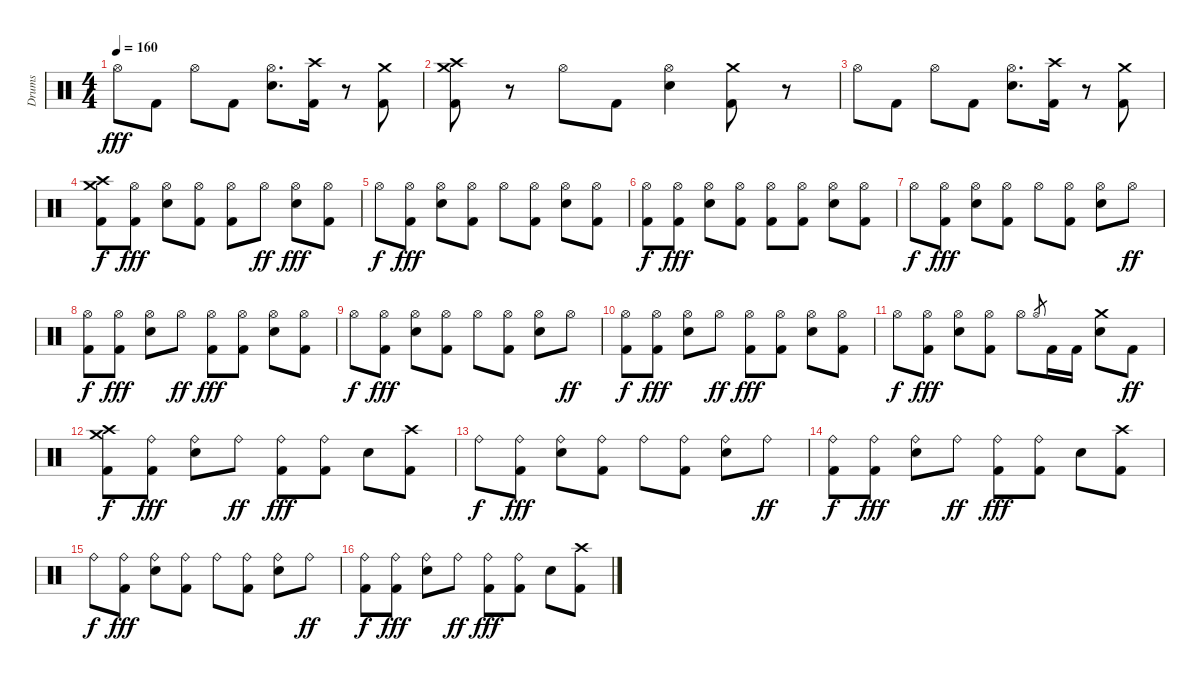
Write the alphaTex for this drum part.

\track ("Drums" "Drums") {instrument percussion}
\staff {score}
\articulation defaults
\ts (4 4)
\tempo 160
\clef neutral
\ks c "Hi-Hat (open)".8{dy fff} "Kick (hit) 2".8 "Hi-Hat (open)".8 "Kick (hit) 2".8
("Hi-Hat (open)" "Snare (hit) 2").8{d} ("Crash high (hit)" "Kick (hit) 2").16 r.8 ("Crash medium (hit)" "Kick (hit) 2").8 |
("Crash medium (hit)" "Crash high (hit)" "Kick (hit) 2").8 r.8 "Hi-Hat (open)".8 "Kick (hit) 2".8 ("Hi-Hat (open)" "Snare (hit) 2").4 ("Crash medium (hit)" "Kick (hit) 2").8 r.8 |
"Hi-Hat (open)".8 "Kick (hit) 2".8 "Hi-Hat (open)".8 "Kick (hit) 2".8 ("Hi-Hat (open)" "Snare (hit) 2").8{d} ("Crash high (hit)" "Kick (hit) 2").16 r.8 ("Crash medium (hit)" "Kick (hit) 2").8 |
("Crash medium (hit)" "Crash high (hit)" "Kick (hit) 2").8{dy f} ("Hi-Hat (open)" "Kick (hit) 2").8{dy fff} ("Hi-Hat (open)" "Snare (hit) 2").8 ("Hi-Hat (open)" "Kick (hit) 2").8 ("Hi-Hat (open)" "Kick (hit) 2").8 "Hi-Hat (open)".8{dy ff} ("Hi-Hat (open)" "Snare (hit) 2").8{dy fff} ("Hi-Hat (open)" "Kick (hit) 2").8 |
"Hi-Hat (open)".8{dy f} ("Hi-Hat (open)" "Kick (hit) 2").8{dy fff} ("Hi-Hat (open)" "Snare (hit) 2").8 ("Hi-Hat (open)" "Kick (hit) 2").8 "Hi-Hat (open)".8 ("Hi-Hat (open)" "Kick (hit) 2").8 ("Hi-Hat (open)" "Snare (hit) 2").8 ("Hi-Hat (open)" "Kick (hit) 2").8 |
("Hi-Hat (open)" "Kick (hit) 2").8{dy f} ("Hi-Hat (open)" "Kick (hit) 2").8{dy fff} ("Hi-Hat (open)" "Snare (hit) 2").8 ("Hi-Hat (open)" "Kick (hit) 2").8 ("Hi-Hat (open)" "Kick (hit) 2").8 ("Hi-Hat (open)" "Kick (hit) 2").8 ("Hi-Hat (open)" "Snare (hit) 2").8 ("Hi-Hat (open)" "Kick (hit) 2").8 |
"Hi-Hat (open)".8{dy f} ("Hi-Hat (open)" "Kick (hit) 2").8{dy fff} ("Hi-Hat (open)" "Snare (hit) 2").8 ("Hi-Hat (open)" "Kick (hit) 2").8 "Hi-Hat (open)".8 ("Hi-Hat (open)" "Kick (hit) 2").8 ("Hi-Hat (open)" "Snare (hit) 2").8 "Hi-Hat (open)".8{dy ff} |
("Hi-Hat (open)" "Kick (hit) 2").8{dy f} ("Hi-Hat (open)" "Kick (hit) 2").8{dy fff} ("Hi-Hat (open)" "Snare (hit) 2").8 "Hi-Hat (open)".8{dy ff} ("Hi-Hat (open)" "Kick (hit) 2").8{dy fff} ("Hi-Hat (open)" "Kick (hit) 2").8 ("Hi-Hat (open)" "Snare (hit) 2").8 ("Hi-Hat (open)" "Kick (hit) 2").8 |
"Hi-Hat (open)".8{dy f} ("Hi-Hat (open)" "Kick (hit) 2").8{dy fff} ("Hi-Hat (open)" "Snare (hit) 2").8 ("Hi-Hat (open)" "Kick (hit) 2").8 "Hi-Hat (open)".8 ("Hi-Hat (open)" "Kick (hit) 2").8 ("Hi-Hat (open)" "Snare (hit) 2").8 "Hi-Hat (open)".8{dy ff} |
("Hi-Hat (open)" "Kick (hit) 2").8{dy f} ("Hi-Hat (open)" "Kick (hit) 2").8{dy fff} ("Hi-Hat (open)" "Snare (hit) 2").8 "Hi-Hat (open)".8{dy ff} ("Hi-Hat (open)" "Kick (hit) 2").8{dy fff} ("Hi-Hat (open)" "Kick (hit) 2").8 ("Hi-Hat (open)" "Snare (hit) 2").8 ("Hi-Hat (open)" "Kick (hit) 2").8 |
"Hi-Hat (open)".8{dy f} ("Hi-Hat (open)" "Kick (hit) 2").8{dy fff} ("Hi-Hat (open)" "Snare (hit) 2").8 ("Hi-Hat (open)" "Kick (hit) 2").8 "Hi-Hat (open)".8 "Hi-Hat (open)".8{gr} "Kick (hit) 2".16 "Kick (hit) 2".16 ("Crash medium (hit)" "Snare (hit) 2").8 "Kick (hit) 2".8{dy ff} |
("Kick (hit) 2" "Crash medium (hit)" "Crash high (hit)").8{dy f} ("Ride (bell)" "Kick (hit) 2").8{dy fff} ("Ride (bell)" "Snare (hit) 2").8 "Ride (bell)".8{dy ff} ("Ride (bell)" "Kick (hit) 2").8{dy fff} ("Ride (bell)" "Kick (hit) 2").8 "Snare (hit) 2".8 ("Crash high (hit)" "Kick (hit) 2").8 |
"Ride (bell)".8{dy f} ("Ride (bell)" "Kick (hit) 2").8{dy fff} ("Ride (bell)" "Snare (hit) 2").8 ("Ride (bell)" "Kick (hit) 2").8 "Ride (bell)".8 ("Ride (bell)" "Kick (hit) 2").8 ("Ride (bell)" "Snare (hit) 2").8 "Ride (bell)".8{dy ff} |
("Ride (bell)" "Kick (hit) 2").8{dy f} ("Ride (bell)" "Kick (hit) 2").8{dy fff} ("Ride (bell)" "Snare (hit) 2").8 "Ride (bell)".8{dy ff} ("Ride (bell)" "Kick (hit) 2").8{dy fff} ("Ride (bell)" "Kick (hit) 2").8 "Snare (hit) 2".8 ("Crash high (hit)" "Kick (hit) 2").8 |
"Ride (bell)".8{dy f} ("Ride (bell)" "Kick (hit) 2").8{dy fff} ("Ride (bell)" "Snare (hit) 2").8 ("Ride (bell)" "Kick (hit) 2").8 "Ride (bell)".8 ("Ride (bell)" "Kick (hit) 2").8 ("Ride (bell)" "Snare (hit) 2").8 "Ride (bell)".8{dy ff} |
("Ride (bell)" "Kick (hit) 2").8{dy f} ("Ride (bell)" "Kick (hit) 2").8{dy fff} ("Ride (bell)" "Snare (hit) 2").8 "Ride (bell)".8{dy ff} ("Ride (bell)" "Kick (hit) 2").8{dy fff} ("Ride (bell)" "Kick (hit) 2").8 "Snare (hit) 2".8 ("Crash high (hit)" "Kick (hit) 2").8
